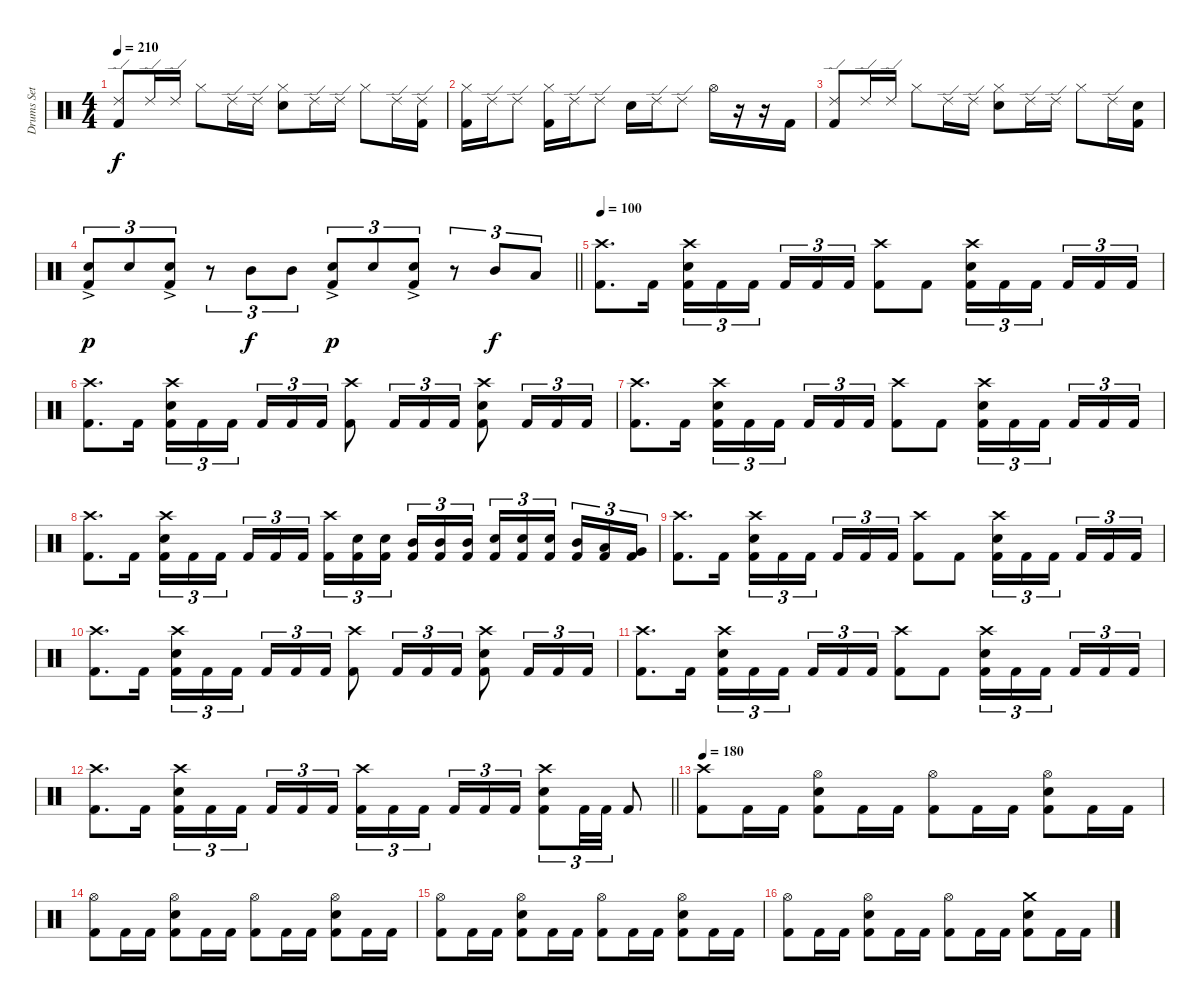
\track ("Drums Set" "Drums Set") {instrument percussion}
\staff {score}
\articulation defaults
\ts (4 4)
\tempo 210
\clef neutral
\ks c
("Ride (edge) 2" "Kick (hit) 2").8{dy f} "Ride (edge) 2".16 "Ride (edge) 2".16 "Hi-Hat (closed)".8 "Ride (edge) 2".16 "Ride (edge) 2".16 ("Hi-Hat (closed)" "Snare (hit) 2").8 "Ride (edge) 2".16 "Ride (edge) 2".16 "Hi-Hat (closed)".8 "Ride (edge) 2".16 ("Ride (edge) 2" "Kick (hit) 2").16 |
("Hi-Hat (closed)" "Kick (hit) 2").16 "Ride (edge) 2".16 "Ride (edge) 2".8 ("Hi-Hat (closed)" "Kick (hit) 2").16 "Ride (edge) 2".16 "Ride (edge) 2".8 "Snare (hit) 2".16 "Ride (edge) 2".16 "Ride (edge) 2".8 "Hi-Hat (open)".16 r.16 r.16 "Kick (hit) 2".16 |
("Ride (edge) 2" "Kick (hit) 2").8 "Ride (edge) 2".16 "Ride (edge) 2".16 "Hi-Hat (closed)".8 "Ride (edge) 2".16 "Ride (edge) 2".16 ("Hi-Hat (closed)" "Snare (hit) 2").8 "Ride (edge) 2".16 "Ride (edge) 2".16 "Hi-Hat (closed)".8 "Ride (edge) 2".16 ("Snare (hit) 2" "Kick (hit) 2").16 |
\barLineRight lightlight
("Snare (hit) 2"{ac} "Kick (hit) 2").8{tu (3 2) dy p} "Snare (hit) 2".8{tu (3 2)} ("Snare (hit) 2"{ac} "Kick (hit) 2").8{tu (3 2)} r.8{tu (3 2)} "Mid Tom (hit)".8{tu (3 2) dy f} "Mid Tom (hit)".8{tu (3 2)} ("Snare (hit) 2"{ac} "Kick (hit) 2").8{tu (3 2) dy p} "Snare (hit) 2".8{tu (3 2)} ("Snare (hit) 2"{ac} "Kick (hit) 2").8{tu (3 2)} r.8{tu (3 2)} "Mid Tom (hit)".8{tu (3 2) dy f} "Low Tom (hit)".8{tu (3 2)} |
\tempo 100
("Crash high (hit)" "Kick (hit) 2").8{d} "Kick (hit) 2".16 ("Crash high (hit)" "Snare (hit) 2" "Kick (hit) 2").16{tu (3 2)} "Kick (hit) 2".16{tu (3 2)} "Kick (hit) 2".16{tu (3 2) beam splitsecondary} "Kick (hit) 2".16{tu (3 2)} "Kick (hit) 2".16{tu (3 2)} "Kick (hit) 2".16{tu (3 2)} ("Crash high (hit)" "Kick (hit) 2").8 "Kick (hit) 2".8 ("Crash high (hit)" "Snare (hit) 2" "Kick (hit) 2").16{tu (3 2)} "Kick (hit) 2".16{tu (3 2)} "Kick (hit) 2".16{tu (3 2) beam splitsecondary} "Kick (hit) 2".16{tu (3 2)} "Kick (hit) 2".16{tu (3 2)} "Kick (hit) 2".16{tu (3 2)} |
("Crash high (hit)" "Kick (hit) 2").8{d} "Kick (hit) 2".16 ("Crash high (hit)" "Snare (hit) 2" "Kick (hit) 2").16{tu (3 2)} "Kick (hit) 2".16{tu (3 2)} "Kick (hit) 2".16{tu (3 2) beam splitsecondary} "Kick (hit) 2".16{tu (3 2)} "Kick (hit) 2".16{tu (3 2)} "Kick (hit) 2".16{tu (3 2)} ("Crash high (hit)" "Kick (hit) 2").8 "Kick (hit) 2".16{tu (3 2)} "Kick (hit) 2".16{tu (3 2)} "Kick (hit) 2".16{tu (3 2)} ("Crash high (hit)" "Snare (hit) 2" "Kick (hit) 2").8 "Kick (hit) 2".16{tu (3 2)} "Kick (hit) 2".16{tu (3 2)} "Kick (hit) 2".16{tu (3 2)} |
("Crash high (hit)" "Kick (hit) 2").8{d} "Kick (hit) 2".16 ("Crash high (hit)" "Snare (hit) 2" "Kick (hit) 2").16{tu (3 2)} "Kick (hit) 2".16{tu (3 2)} "Kick (hit) 2".16{tu (3 2) beam splitsecondary} "Kick (hit) 2".16{tu (3 2)} "Kick (hit) 2".16{tu (3 2)} "Kick (hit) 2".16{tu (3 2)} ("Crash high (hit)" "Kick (hit) 2").8 "Kick (hit) 2".8 ("Crash high (hit)" "Snare (hit) 2" "Kick (hit) 2").16{tu (3 2)} "Kick (hit) 2".16{tu (3 2)} "Kick (hit) 2".16{tu (3 2) beam splitsecondary} "Kick (hit) 2".16{tu (3 2)} "Kick (hit) 2".16{tu (3 2)} "Kick (hit) 2".16{tu (3 2)} |
("Crash high (hit)" "Kick (hit) 2").8{d} "Kick (hit) 2".16 ("Crash high (hit)" "Snare (hit) 2" "Kick (hit) 2").16{tu (3 2)} "Kick (hit) 2".16{tu (3 2)} "Kick (hit) 2".16{tu (3 2) beam splitsecondary} "Kick (hit) 2".16{tu (3 2)} "Kick (hit) 2".16{tu (3 2)} "Kick (hit) 2".16{tu (3 2)} ("Crash high (hit)" "Kick (hit) 2").16{tu (3 2)} ("Snare (hit) 2" "Kick (hit) 2").16{tu (3 2)} ("Snare (hit) 2" "Kick (hit) 2").16{tu (3 2) beam splitsecondary} ("Mid Tom (hit)" "Kick (hit) 2").16{tu (3 2)} ("Mid Tom (hit)" "Kick (hit) 2").16{tu (3 2)} ("Mid Tom (hit)" "Kick (hit) 2").16{tu (3 2)} ("Snare (hit) 2" "Kick (hit) 2").16{tu (3 2)} ("Snare (hit) 2" "Kick (hit) 2").16{tu (3 2)} ("Snare (hit) 2" "Kick (hit) 2").16{tu (3 2) beam splitsecondary} ("Mid Tom (hit)" "Kick (hit) 2").16{tu (3 2)} ("Low Tom (hit)" "Kick (hit) 2").16{tu (3 2)} ("Very Low Tom (hit)" "Kick (hit) 2").16{tu (3 2)} |
("Crash high (hit)" "Kick (hit) 2").8{d} "Kick (hit) 2".16 ("Crash high (hit)" "Snare (hit) 2" "Kick (hit) 2").16{tu (3 2)} "Kick (hit) 2".16{tu (3 2)} "Kick (hit) 2".16{tu (3 2) beam splitsecondary} "Kick (hit) 2".16{tu (3 2)} "Kick (hit) 2".16{tu (3 2)} "Kick (hit) 2".16{tu (3 2)} ("Crash high (hit)" "Kick (hit) 2").8 "Kick (hit) 2".8 ("Crash high (hit)" "Snare (hit) 2" "Kick (hit) 2").16{tu (3 2)} "Kick (hit) 2".16{tu (3 2)} "Kick (hit) 2".16{tu (3 2) beam splitsecondary} "Kick (hit) 2".16{tu (3 2)} "Kick (hit) 2".16{tu (3 2)} "Kick (hit) 2".16{tu (3 2)} |
("Crash high (hit)" "Kick (hit) 2").8{d} "Kick (hit) 2".16 ("Crash high (hit)" "Snare (hit) 2" "Kick (hit) 2").16{tu (3 2)} "Kick (hit) 2".16{tu (3 2)} "Kick (hit) 2".16{tu (3 2) beam splitsecondary} "Kick (hit) 2".16{tu (3 2)} "Kick (hit) 2".16{tu (3 2)} "Kick (hit) 2".16{tu (3 2)} ("Crash high (hit)" "Kick (hit) 2").8 "Kick (hit) 2".16{tu (3 2)} "Kick (hit) 2".16{tu (3 2)} "Kick (hit) 2".16{tu (3 2)} ("Crash high (hit)" "Snare (hit) 2" "Kick (hit) 2").8 "Kick (hit) 2".16{tu (3 2)} "Kick (hit) 2".16{tu (3 2)} "Kick (hit) 2".16{tu (3 2)} |
("Crash high (hit)" "Kick (hit) 2").8{d} "Kick (hit) 2".16 ("Crash high (hit)" "Snare (hit) 2" "Kick (hit) 2").16{tu (3 2)} "Kick (hit) 2".16{tu (3 2)} "Kick (hit) 2".16{tu (3 2) beam splitsecondary} "Kick (hit) 2".16{tu (3 2)} "Kick (hit) 2".16{tu (3 2)} "Kick (hit) 2".16{tu (3 2)} ("Crash high (hit)" "Kick (hit) 2").8 "Kick (hit) 2".8 ("Crash high (hit)" "Snare (hit) 2" "Kick (hit) 2").16{tu (3 2)} "Kick (hit) 2".16{tu (3 2)} "Kick (hit) 2".16{tu (3 2) beam splitsecondary} "Kick (hit) 2".16{tu (3 2)} "Kick (hit) 2".16{tu (3 2)} "Kick (hit) 2".16{tu (3 2)} |
\barLineRight lightlight
("Crash high (hit)" "Kick (hit) 2").8{d} "Kick (hit) 2".16 ("Crash high (hit)" "Snare (hit) 2" "Kick (hit) 2").16{tu (3 2)} "Kick (hit) 2".16{tu (3 2)} "Kick (hit) 2".16{tu (3 2) beam splitsecondary} "Kick (hit) 2".16{tu (3 2)} "Kick (hit) 2".16{tu (3 2)} "Kick (hit) 2".16{tu (3 2)} ("Crash high (hit)" "Kick (hit) 2").16{tu (3 2)} "Kick (hit) 2".16{tu (3 2)} "Kick (hit) 2".16{tu (3 2) beam splitsecondary} "Kick (hit) 2".16{tu (3 2)} "Kick (hit) 2".16{tu (3 2)} "Kick (hit) 2".16{tu (3 2)} ("Crash high (hit)" "Snare (hit) 2" "Kick (hit) 2").8{tu (3 2)} "Kick (hit) 2".32{tu (3 2)} "Kick (hit) 2".32{tu (3 2)} "Kick (hit) 2".8 |
\tempo 180
("Crash high (hit)" "Kick (hit) 2").8 "Kick (hit) 2".16 "Kick (hit) 2".16 ("Hi-Hat (open)" "Snare (hit) 2" "Kick (hit) 2").8 "Kick (hit) 2".16 "Kick (hit) 2".16 ("Hi-Hat (open)" "Kick (hit) 2").8 "Kick (hit) 2".16 "Kick (hit) 2".16 ("Hi-Hat (open)" "Snare (hit) 2" "Kick (hit) 2").8 "Kick (hit) 2".16 "Kick (hit) 2".16 |
("Hi-Hat (open)" "Kick (hit) 2").8 "Kick (hit) 2".16 "Kick (hit) 2".16 ("Hi-Hat (open)" "Snare (hit) 2" "Kick (hit) 2").8 "Kick (hit) 2".16 "Kick (hit) 2".16 ("Hi-Hat (open)" "Kick (hit) 2").8 "Kick (hit) 2".16 "Kick (hit) 2".16 ("Hi-Hat (open)" "Snare (hit) 2" "Kick (hit) 2").8 "Kick (hit) 2".16 "Kick (hit) 2".16 |
("Hi-Hat (open)" "Kick (hit) 2").8 "Kick (hit) 2".16 "Kick (hit) 2".16 ("Hi-Hat (open)" "Snare (hit) 2" "Kick (hit) 2").8 "Kick (hit) 2".16 "Kick (hit) 2".16 ("Hi-Hat (open)" "Kick (hit) 2").8 "Kick (hit) 2".16 "Kick (hit) 2".16 ("Hi-Hat (open)" "Snare (hit) 2" "Kick (hit) 2").8 "Kick (hit) 2".16 "Kick (hit) 2".16 |
("Hi-Hat (open)" "Kick (hit) 2").8 "Kick (hit) 2".16 "Kick (hit) 2".16 ("Hi-Hat (open)" "Snare (hit) 2" "Kick (hit) 2").8 "Kick (hit) 2".16 "Kick (hit) 2".16 ("Hi-Hat (open)" "Kick (hit) 2").8 "Kick (hit) 2".16 "Kick (hit) 2".16 ("Crash medium (hit)" "Snare (hit) 2" "Kick (hit) 2").8 "Kick (hit) 2".16 "Kick (hit) 2".16
